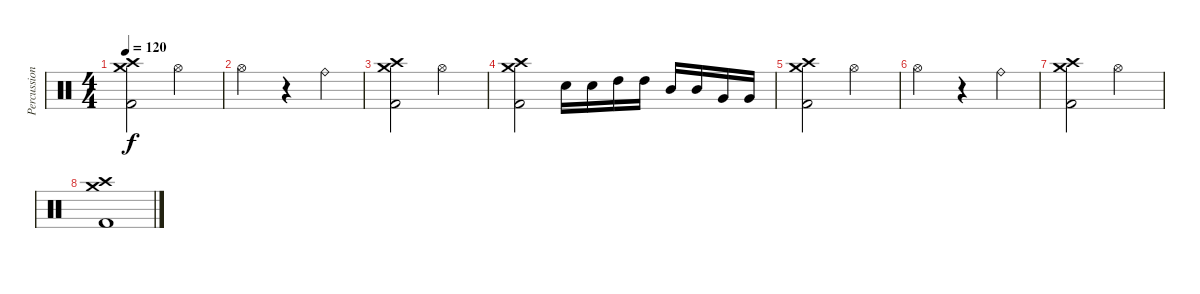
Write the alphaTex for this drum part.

\track ("Percussion" "Percussion") {instrument percussion}
\staff {score}
\articulation defaults
\ts (4 4)
\tempo 120
\clef neutral
\ks c
("Crash high (hit)" "Crash medium (hit)" "Kick (hit) 2").2{dy f} "Hi-Hat (open)".2 |
"Hi-Hat (open)".2 r.4 "Ride (bell)".4 |
("Crash high (hit)" "Crash medium (hit)" "Kick (hit) 2").2 "Hi-Hat (open)".2 |
("Crash high (hit)" "Crash medium (hit)" "Kick (hit) 2").2 "Electric Snare (hit)".16 "Electric Snare (hit)".16 "High Tom (hit)".16 "High Tom (hit)".16 "Mid Tom (hit)".16 "Mid Tom (hit)".16 "Very Low Tom (hit)".16 "Very Low Tom (hit)".16 |
("Crash high (hit)" "Crash medium (hit)" "Kick (hit) 2").2 "Hi-Hat (open)".2 |
"Hi-Hat (open)".2 r.4 "Ride (bell)".4 |
("Crash high (hit)" "Crash medium (hit)" "Kick (hit) 2").2 "Hi-Hat (open)".2 |
("Crash high (hit)" "Crash medium (hit)" "Kick (hit) 2").1
